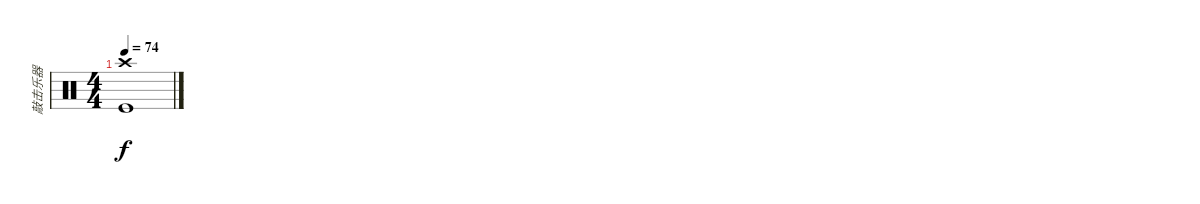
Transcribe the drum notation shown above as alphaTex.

\track ("敲击乐器" "敲击乐器") {instrument percussion}
\staff {score}
\articulation defaults
\ts (4 4)
\tempo 74
\clef neutral
\ks c
("Crash high (hit)" "Kick (hit)").1{dy f}
